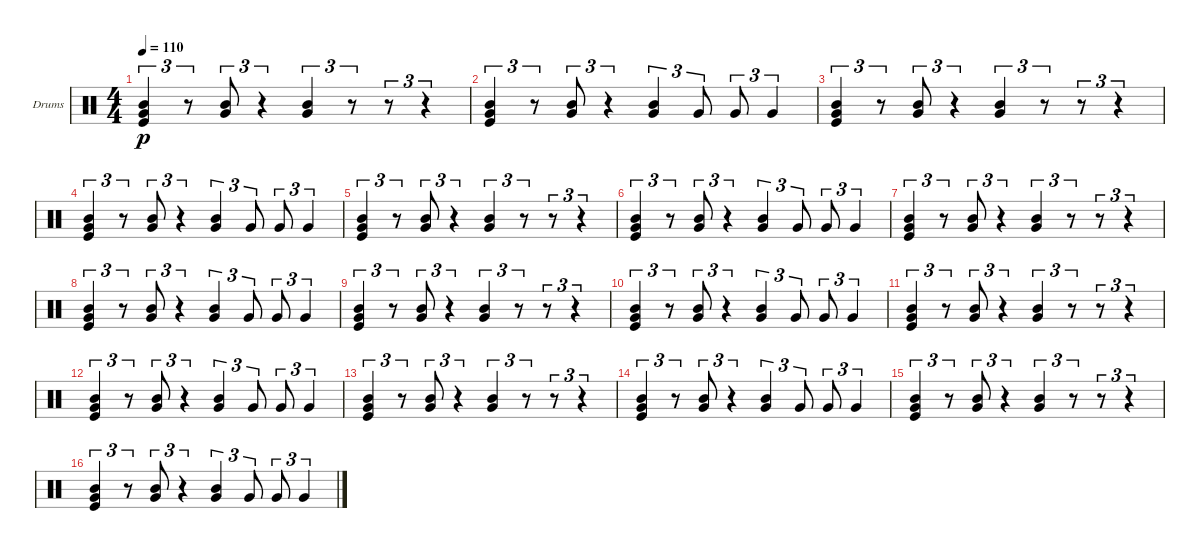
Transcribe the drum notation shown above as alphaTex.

\defaultSystemsLayout 4
\bracketExtendMode groupsimilarinstruments
\firstSystemTrackNameOrientation horizontal
\otherSystemsTrackNameOrientation horizontal
\track ("Drumkit" "Drums") {instrument percussion}
\staff {score}
\articulation defaults
\ts (4 4)
\tempo 110
\clef neutral
\scale
0.333333
\ks c
("Kick (hit)" "Very Low Tom (hit)" "Mid Tom (hit)").4{tu (3 2) dy p} r.8{tu (3 2)} ("Mid Tom (hit)" "Very Low Tom (hit)").8{tu (3 2)} r.4{tu (3 2)} ("Very Low Tom (hit)" "Mid Tom (hit)").4{tu (3 2)} r.8{tu (3 2)} r.8{tu (3 2)} r.4{tu (3 2)} |
\scale
0.333333 ("Kick (hit)" "Very Low Tom (hit)" "Mid Tom (hit)").4{tu (3 2)} r.8{tu (3 2)} ("Mid Tom (hit)" "Very Low Tom (hit)").8{tu (3 2)} r.4{tu (3 2)} ("Very Low Tom (hit)" "Mid Tom (hit)").4{tu (3 2)} "Very Low Tom (hit)".8{tu (3 2)} "Very Low Tom (hit)".8{tu (3 2)} "Very Low Tom (hit)".4{tu (3 2)} |
\scale
0.333333 ("Kick (hit)" "Very Low Tom (hit)" "Mid Tom (hit)").4{tu (3 2)} r.8{tu (3 2)} ("Mid Tom (hit)" "Very Low Tom (hit)").8{tu (3 2)} r.4{tu (3 2)} ("Very Low Tom (hit)" "Mid Tom (hit)").4{tu (3 2)} r.8{tu (3 2)} r.8{tu (3 2)} r.4{tu (3 2)} |
\scale
0.333333 ("Kick (hit)" "Very Low Tom (hit)" "Mid Tom (hit)").4{tu (3 2)} r.8{tu (3 2)} ("Mid Tom (hit)" "Very Low Tom (hit)").8{tu (3 2)} r.4{tu (3 2)} ("Very Low Tom (hit)" "Mid Tom (hit)").4{tu (3 2)} "Very Low Tom (hit)".8{tu (3 2)} "Very Low Tom (hit)".8{tu (3 2)} "Very Low Tom (hit)".4{tu (3 2)} |
\scale
0.333333 ("Kick (hit)" "Very Low Tom (hit)" "Mid Tom (hit)").4{tu (3 2)} r.8{tu (3 2)} ("Mid Tom (hit)" "Very Low Tom (hit)").8{tu (3 2)} r.4{tu (3 2)} ("Very Low Tom (hit)" "Mid Tom (hit)").4{tu (3 2)} r.8{tu (3 2)} r.8{tu (3 2)} r.4{tu (3 2)} |
\scale
0.333333 ("Kick (hit)" "Very Low Tom (hit)" "Mid Tom (hit)").4{tu (3 2)} r.8{tu (3 2)} ("Mid Tom (hit)" "Very Low Tom (hit)").8{tu (3 2)} r.4{tu (3 2)} ("Very Low Tom (hit)" "Mid Tom (hit)").4{tu (3 2)} "Very Low Tom (hit)".8{tu (3 2)} "Very Low Tom (hit)".8{tu (3 2)} "Very Low Tom (hit)".4{tu (3 2)} |
\scale
0.333333 ("Kick (hit)" "Very Low Tom (hit)" "Mid Tom (hit)").4{tu (3 2)} r.8{tu (3 2)} ("Mid Tom (hit)" "Very Low Tom (hit)").8{tu (3 2)} r.4{tu (3 2)} ("Very Low Tom (hit)" "Mid Tom (hit)").4{tu (3 2)} r.8{tu (3 2)} r.8{tu (3 2)} r.4{tu (3 2)} |
\scale
0.333333 ("Kick (hit)" "Very Low Tom (hit)" "Mid Tom (hit)").4{tu (3 2)} r.8{tu (3 2)} ("Mid Tom (hit)" "Very Low Tom (hit)").8{tu (3 2)} r.4{tu (3 2)} ("Very Low Tom (hit)" "Mid Tom (hit)").4{tu (3 2)} "Very Low Tom (hit)".8{tu (3 2)} "Very Low Tom (hit)".8{tu (3 2)} "Very Low Tom (hit)".4{tu (3 2)} |
("Kick (hit)" "Very Low Tom (hit)" "Mid Tom (hit)").4{tu (3 2)} r.8{tu (3 2)} ("Mid Tom (hit)" "Very Low Tom (hit)").8{tu (3 2)} r.4{tu (3 2)} ("Very Low Tom (hit)" "Mid Tom (hit)").4{tu (3 2)} r.8{tu (3 2)} r.8{tu (3 2)} r.4{tu (3 2)} |
("Kick (hit)" "Very Low Tom (hit)" "Mid Tom (hit)").4{tu (3 2)} r.8{tu (3 2)} ("Mid Tom (hit)" "Very Low Tom (hit)").8{tu (3 2)} r.4{tu (3 2)} ("Very Low Tom (hit)" "Mid Tom (hit)").4{tu (3 2)} "Very Low Tom (hit)".8{tu (3 2)} "Very Low Tom (hit)".8{tu (3 2)} "Very Low Tom (hit)".4{tu (3 2)} |
("Kick (hit)" "Very Low Tom (hit)" "Mid Tom (hit)").4{tu (3 2)} r.8{tu (3 2)} ("Mid Tom (hit)" "Very Low Tom (hit)").8{tu (3 2)} r.4{tu (3 2)} ("Very Low Tom (hit)" "Mid Tom (hit)").4{tu (3 2)} r.8{tu (3 2)} r.8{tu (3 2)} r.4{tu (3 2)} |
("Kick (hit)" "Very Low Tom (hit)" "Mid Tom (hit)").4{tu (3 2)} r.8{tu (3 2)} ("Mid Tom (hit)" "Very Low Tom (hit)").8{tu (3 2)} r.4{tu (3 2)} ("Very Low Tom (hit)" "Mid Tom (hit)").4{tu (3 2)} "Very Low Tom (hit)".8{tu (3 2)} "Very Low Tom (hit)".8{tu (3 2)} "Very Low Tom (hit)".4{tu (3 2)} |
("Kick (hit)" "Very Low Tom (hit)" "Mid Tom (hit)").4{tu (3 2)} r.8{tu (3 2)} ("Mid Tom (hit)" "Very Low Tom (hit)").8{tu (3 2)} r.4{tu (3 2)} ("Very Low Tom (hit)" "Mid Tom (hit)").4{tu (3 2)} r.8{tu (3 2)} r.8{tu (3 2)} r.4{tu (3 2)} |
("Kick (hit)" "Very Low Tom (hit)" "Mid Tom (hit)").4{tu (3 2)} r.8{tu (3 2)} ("Mid Tom (hit)" "Very Low Tom (hit)").8{tu (3 2)} r.4{tu (3 2)} ("Very Low Tom (hit)" "Mid Tom (hit)").4{tu (3 2)} "Very Low Tom (hit)".8{tu (3 2)} "Very Low Tom (hit)".8{tu (3 2)} "Very Low Tom (hit)".4{tu (3 2)} |
("Kick (hit)" "Very Low Tom (hit)" "Mid Tom (hit)").4{tu (3 2)} r.8{tu (3 2)} ("Mid Tom (hit)" "Very Low Tom (hit)").8{tu (3 2)} r.4{tu (3 2)} ("Very Low Tom (hit)" "Mid Tom (hit)").4{tu (3 2)} r.8{tu (3 2)} r.8{tu (3 2)} r.4{tu (3 2)} |
("Kick (hit)" "Very Low Tom (hit)" "Mid Tom (hit)").4{tu (3 2)} r.8{tu (3 2)} ("Mid Tom (hit)" "Very Low Tom (hit)").8{tu (3 2)} r.4{tu (3 2)} ("Very Low Tom (hit)" "Mid Tom (hit)").4{tu (3 2)} "Very Low Tom (hit)".8{tu (3 2)} "Very Low Tom (hit)".8{tu (3 2)} "Very Low Tom (hit)".4{tu (3 2)}
